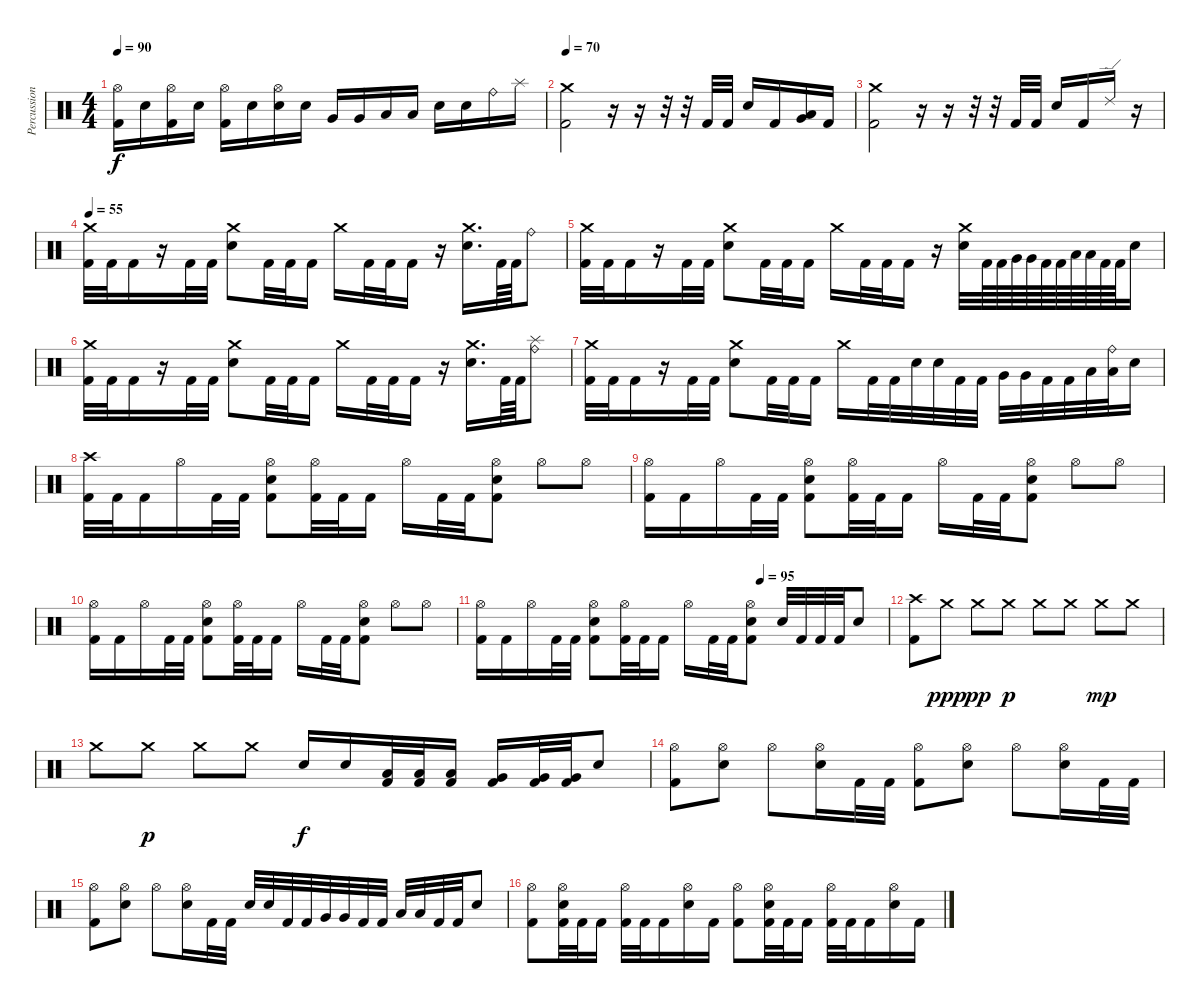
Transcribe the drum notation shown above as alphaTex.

\track ("Percussion" "Percussion") {instrument percussion}
\staff {score}
\articulation defaults
\ts (4 4)
\tempo 90
\clef neutral
\ks c
("Hi-Hat (open)" "Kick (hit) 2").16{dy f} "Electric Snare (hit)".16 ("Hi-Hat (open)" "Kick (hit) 2").16 "Electric Snare (hit)".16 ("Hi-Hat (open)" "Kick (hit) 2").16 "Electric Snare (hit)".16 ("Hi-Hat (open)" "Electric Snare (hit)").16 "Electric Snare (hit)".16 "Very Low Tom (hit)".16 "Very Low Tom (hit)".16 "Low Floor Tom (hit)".16 "Low Floor Tom (hit)".16 "Electric Snare (hit)".16 "Electric Snare (hit)".16 "Ride (bell)".16 "Splash (hit)".16 |
\tempo 70
("Crash medium (hit)" "Kick (hit) 2").2 r.16 r.16 r.32 r.32 "Kick (hit) 2".32 "Kick (hit) 2".32 "Electric Snare (hit)".16 "Kick (hit) 2".16 ("Low Floor Tom (hit)" "Very Low Tom (hit)").16 "Kick (hit) 2".16 |
("Crash medium (hit)" "Kick (hit) 2").2 r.16 r.16 r.32 r.32 "Kick (hit) 2".32 "Kick (hit) 2".32 "Electric Snare (hit)".16 "Kick (hit) 2".16 "Ride (edge) 2".16 r.16 |
\tempo 55
("Crash medium (hit)" "Kick (hit) 2").32 "Kick (hit) 2".32 "Kick (hit) 2".16 r.16 "Kick (hit) 2".32 "Kick (hit) 2".32 ("Crash medium (hit)" "Electric Snare (hit)").8 "Kick (hit) 2".32 "Kick (hit) 2".32 "Kick (hit) 2".16 "Crash medium (hit)".16 "Kick (hit) 2".32 "Kick (hit) 2".32 "Kick (hit) 2".16 r.16 ("Crash medium (hit)" "Electric Snare (hit)").16{d} "Kick (hit) 2".64 "Kick (hit) 2".64 "Ride (bell)".8 |
("Crash medium (hit)" "Kick (hit) 2").32 "Kick (hit) 2".32 "Kick (hit) 2".16 r.16 "Kick (hit) 2".32 "Kick (hit) 2".32 ("Crash medium (hit)" "Electric Snare (hit)").8 "Kick (hit) 2".32 "Kick (hit) 2".32 "Kick (hit) 2".16 "Crash medium (hit)".16 "Kick (hit) 2".32 "Kick (hit) 2".32 "Kick (hit) 2".16 r.16 ("Crash medium (hit)" "Electric Snare (hit)").32 "Kick (hit) 2".64 "Kick (hit) 2".64 "Very Low Tom (hit)".64 "Very Low Tom (hit)".64 "Kick (hit) 2".64 "Kick (hit) 2".64 "Low Floor Tom (hit)".64 "Low Floor Tom (hit)".64 "Kick (hit) 2".64 "Kick (hit) 2".64 "Electric Snare (hit)".16 |
("Crash medium (hit)" "Kick (hit) 2").32 "Kick (hit) 2".32 "Kick (hit) 2".16 r.16 "Kick (hit) 2".32 "Kick (hit) 2".32 ("Crash medium (hit)" "Electric Snare (hit)").8 "Kick (hit) 2".32 "Kick (hit) 2".32 "Kick (hit) 2".16 "Crash medium (hit)".16 "Kick (hit) 2".32 "Kick (hit) 2".32 "Kick (hit) 2".16 r.16 ("Crash medium (hit)" "Electric Snare (hit)").16{d} "Kick (hit) 2".64 "Kick (hit) 2".64 ("Splash (hit)" "Ride (bell)").8 |
("Crash medium (hit)" "Kick (hit) 2").32 "Kick (hit) 2".32 "Kick (hit) 2".16 r.16 "Kick (hit) 2".32 "Kick (hit) 2".32 ("Crash medium (hit)" "Electric Snare (hit)").8 "Kick (hit) 2".32 "Kick (hit) 2".32 "Kick (hit) 2".16 "Crash medium (hit)".16 "Kick (hit) 2".32 "Kick (hit) 2".32 "Electric Snare (hit)".32 "Electric Snare (hit)".32 "Kick (hit) 2".32 "Kick (hit) 2".32 "Very Low Tom (hit)".32 "Very Low Tom (hit)".32 "Kick (hit) 2".32 "Kick (hit) 2".32 "Low Floor Tom (hit)".32 ("Ride (bell)" "Low Floor Tom (hit)").32 "Electric Snare (hit)".16 |
("Crash high (hit)" "Kick (hit) 2").32 "Kick (hit) 2".32 "Kick (hit) 2".16 "Hi-Hat (open)".16 "Kick (hit) 2".32 "Kick (hit) 2".32 ("Hi-Hat (open)" "Electric Snare (hit)" "Kick (hit) 2").8 ("Hi-Hat (open)" "Kick (hit) 2").32 "Kick (hit) 2".32 "Kick (hit) 2".16 "Hi-Hat (open)".16 "Kick (hit) 2".32 "Kick (hit) 2".32 ("Hi-Hat (open)" "Electric Snare (hit)" "Kick (hit) 2").8 "Hi-Hat (open)".8 "Hi-Hat (open)".8 |
("Hi-Hat (open)" "Kick (hit) 2").16 "Kick (hit) 2".16 "Hi-Hat (open)".16 "Kick (hit) 2".32 "Kick (hit) 2".32 ("Hi-Hat (open)" "Electric Snare (hit)" "Kick (hit) 2").8 ("Hi-Hat (open)" "Kick (hit) 2").32 "Kick (hit) 2".32 "Kick (hit) 2".16 "Hi-Hat (open)".16 "Kick (hit) 2".32 "Kick (hit) 2".32 ("Hi-Hat (open)" "Electric Snare (hit)" "Kick (hit) 2").8 "Hi-Hat (open)".8 "Hi-Hat (open)".8 |
("Hi-Hat (open)" "Kick (hit) 2").16 "Kick (hit) 2".16 "Hi-Hat (open)".16 "Kick (hit) 2".32 "Kick (hit) 2".32 ("Hi-Hat (open)" "Electric Snare (hit)" "Kick (hit) 2").8 ("Hi-Hat (open)" "Kick (hit) 2").32 "Kick (hit) 2".32 "Kick (hit) 2".16 "Hi-Hat (open)".16 "Kick (hit) 2".32 "Kick (hit) 2".32 ("Hi-Hat (open)" "Electric Snare (hit)" "Kick (hit) 2").8 "Hi-Hat (open)".8 "Hi-Hat (open)".8 |
\tempo (95 0.6875)
("Hi-Hat (open)" "Kick (hit) 2").16 "Kick (hit) 2".16 "Hi-Hat (open)".16 "Kick (hit) 2".32 "Kick (hit) 2".32 ("Hi-Hat (open)" "Electric Snare (hit)" "Kick (hit) 2").8 ("Hi-Hat (open)" "Kick (hit) 2").32 "Kick (hit) 2".32 "Kick (hit) 2".16 "Hi-Hat (open)".16 "Kick (hit) 2".32 "Kick (hit) 2".32 ("Hi-Hat (open)" "Electric Snare (hit)" "Kick (hit) 2").8 "Electric Snare (hit)".32 "Kick (hit) 2".32 "Kick (hit) 2".32 "Kick (hit) 2".32 "Electric Snare (hit)".8 |
("Crash high (hit)" "Kick (hit) 2").8 "Crash medium (hit)".8{dy ppp} "Crash medium (hit)".8{dy pp} "Crash medium (hit)".8{dy p} "Crash medium (hit)".8 "Crash medium (hit)".8 "Crash medium (hit)".8{dy mp} "Crash medium (hit)".8 |
"Crash medium (hit)".8 "Crash medium (hit)".8{dy p} "Crash medium (hit)".8 "Crash medium (hit)".8 "Electric Snare (hit)".16{dy f} "Electric Snare (hit)".16 ("Low Tom (hit)" "Kick (hit) 2").32 ("Low Tom (hit)" "Kick (hit) 2").32 ("Low Tom (hit)" "Kick (hit) 2").16 ("Very Low Tom (hit)" "Kick (hit) 2").16 ("Very Low Tom (hit)" "Kick (hit) 2").32 ("Very Low Tom (hit)" "Kick (hit) 2").32 "Electric Snare (hit)".8 |
("Hi-Hat (open)" "Kick (hit) 2").8 ("Hi-Hat (open)" "Electric Snare (hit)").8 "Hi-Hat (open)".8 ("Hi-Hat (open)" "Electric Snare (hit)").16 "Kick (hit) 2".32 "Kick (hit) 2".32 ("Hi-Hat (open)" "Kick (hit) 2").8 ("Hi-Hat (open)" "Electric Snare (hit)").8 "Hi-Hat (open)".8 ("Hi-Hat (open)" "Electric Snare (hit)").16 "Kick (hit) 2".32 "Kick (hit) 2".32 |
("Hi-Hat (open)" "Kick (hit) 2").8 ("Hi-Hat (open)" "Electric Snare (hit)").8 "Hi-Hat (open)".8 ("Hi-Hat (open)" "Electric Snare (hit)").16 "Kick (hit) 2".32 "Kick (hit) 2".32 "Electric Snare (hit)".32 "Electric Snare (hit)".32 "Kick (hit) 2".32 "Kick (hit) 2".32 "Very Low Tom (hit)".32 "Very Low Tom (hit)".32 "Kick (hit) 2".32 "Kick (hit) 2".32 "Low Floor Tom (hit)".32 "Low Floor Tom (hit)".32 "Kick (hit) 2".32 "Kick (hit) 2".32 "Electric Snare (hit)".8 |
("Hi-Hat (open)" "Kick (hit) 2").8 ("Hi-Hat (open)" "Electric Snare (hit)" "Kick (hit) 2").32 "Kick (hit) 2".32 "Kick (hit) 2".16 ("Hi-Hat (open)" "Kick (hit) 2").32 "Kick (hit) 2".32 "Kick (hit) 2".16 ("Hi-Hat (open)" "Electric Snare (hit)").16 "Kick (hit) 2".16 ("Hi-Hat (open)" "Kick (hit) 2").8 ("Hi-Hat (open)" "Electric Snare (hit)" "Kick (hit) 2").32 "Kick (hit) 2".32 "Kick (hit) 2".16 ("Hi-Hat (open)" "Kick (hit) 2").32 "Kick (hit) 2".32 "Kick (hit) 2".16 ("Hi-Hat (open)" "Electric Snare (hit)").16 "Kick (hit) 2".16
